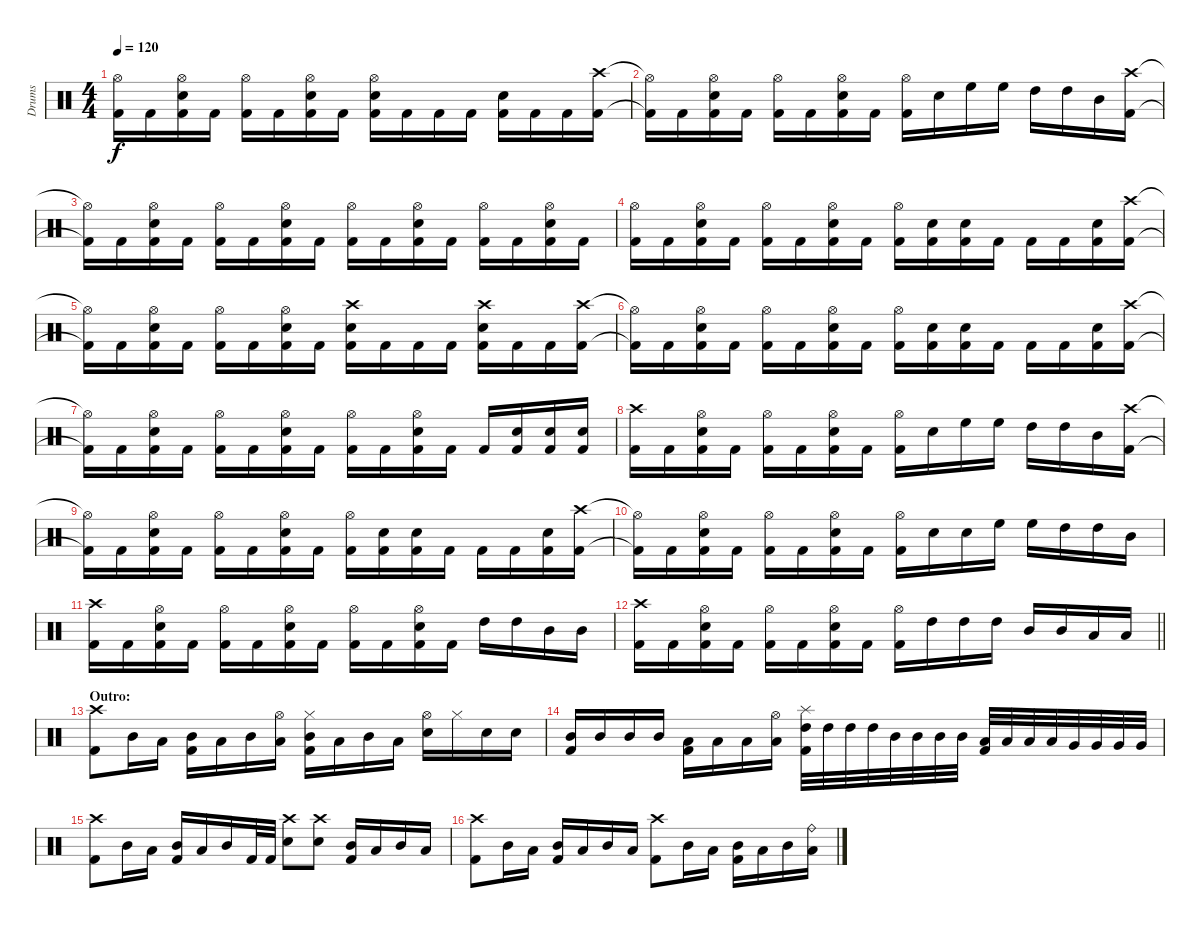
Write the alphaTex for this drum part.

\track ("Drums" "Drums") {instrument percussion}
\staff {score}
\articulation defaults
\ts (4 4)
\tempo 120
\clef neutral
\ks c
("Hi-Hat (open)"{t} "Kick (hit) 2"{t}).16{dy f} "Kick (hit) 2".16 ("Hi-Hat (open)" "Electric Snare (hit)" "Kick (hit) 2").16 "Kick (hit) 2".16 ("Hi-Hat (open)" "Kick (hit) 2").16 "Kick (hit) 2".16 ("Hi-Hat (open)" "Electric Snare (hit)" "Kick (hit) 2").16 "Kick (hit) 2".16 ("Hi-Hat (open)" "Electric Snare (hit)" "Kick (hit) 2").16 "Kick (hit) 2".16 "Kick (hit) 2".16 "Kick (hit) 2".16 ("Electric Snare (hit)" "Kick (hit) 2").16 "Kick (hit) 2".16 "Kick (hit) 2".16 ("Crash high (hit)" "Kick (hit) 2").16 |
("Hi-Hat (open)"{t} "Kick (hit) 2"{t}).16 "Kick (hit) 2".16 ("Hi-Hat (open)" "Electric Snare (hit)" "Kick (hit) 2").16 "Kick (hit) 2".16 ("Hi-Hat (open)" "Kick (hit) 2").16 "Kick (hit) 2".16 ("Hi-Hat (open)" "Electric Snare (hit)" "Kick (hit) 2").16 "Kick (hit) 2".16 ("Hi-Hat (open)" "Kick (hit) 2").16 "Electric Snare (hit)".16 "High Floor Tom (hit)".16 "High Floor Tom (hit)".16 "High Tom (hit)".16 "High Tom (hit)".16 "Mid Tom (hit)".16 ("Crash high (hit)" "Kick (hit) 2").16 |
("Hi-Hat (open)"{t} "Kick (hit) 2"{t}).16 "Kick (hit) 2".16 ("Hi-Hat (open)" "Electric Snare (hit)" "Kick (hit) 2").16 "Kick (hit) 2".16 ("Hi-Hat (open)" "Kick (hit) 2").16 "Kick (hit) 2".16 ("Hi-Hat (open)" "Electric Snare (hit)" "Kick (hit) 2").16 "Kick (hit) 2".16 ("Hi-Hat (open)" "Kick (hit) 2").16 "Kick (hit) 2".16 ("Hi-Hat (open)" "Electric Snare (hit)" "Kick (hit) 2").16 "Kick (hit) 2".16 ("Hi-Hat (open)" "Kick (hit) 2").16 "Kick (hit) 2".16 ("Hi-Hat (open)" "Electric Snare (hit)" "Kick (hit) 2").16 "Kick (hit) 2".16 |
("Hi-Hat (open)" "Kick (hit) 2").16 "Kick (hit) 2".16 ("Hi-Hat (open)" "Electric Snare (hit)" "Kick (hit) 2").16 "Kick (hit) 2".16 ("Hi-Hat (open)" "Kick (hit) 2").16 "Kick (hit) 2".16 ("Hi-Hat (open)" "Electric Snare (hit)" "Kick (hit) 2").16 "Kick (hit) 2".16 ("Hi-Hat (open)" "Kick (hit) 2").16 ("Electric Snare (hit)" "Kick (hit) 2").16 ("Electric Snare (hit)" "Kick (hit) 2").16 "Kick (hit) 2".16 "Kick (hit) 2".16 "Kick (hit) 2".16 ("Electric Snare (hit)" "Kick (hit) 2").16 ("Crash high (hit)" "Kick (hit) 2").16 |
("Hi-Hat (open)"{t} "Kick (hit) 2"{t}).16 "Kick (hit) 2".16 ("Hi-Hat (open)" "Electric Snare (hit)" "Kick (hit) 2").16 "Kick (hit) 2".16 ("Hi-Hat (open)" "Kick (hit) 2").16 "Kick (hit) 2".16 ("Hi-Hat (open)" "Electric Snare (hit)" "Kick (hit) 2").16 "Kick (hit) 2".16 ("Crash high (hit)" "Electric Snare (hit)" "Kick (hit) 2").16 "Kick (hit) 2".16 "Kick (hit) 2".16 "Kick (hit) 2".16 ("Crash high (hit)" "Electric Snare (hit)" "Kick (hit) 2").16 "Kick (hit) 2".16 "Kick (hit) 2".16 ("Crash high (hit)" "Kick (hit) 2").16 |
("Hi-Hat (open)"{t} "Kick (hit) 2"{t}).16 "Kick (hit) 2".16 ("Hi-Hat (open)" "Electric Snare (hit)" "Kick (hit) 2").16 "Kick (hit) 2".16 ("Hi-Hat (open)" "Kick (hit) 2").16 "Kick (hit) 2".16 ("Hi-Hat (open)" "Electric Snare (hit)" "Kick (hit) 2").16 "Kick (hit) 2".16 ("Hi-Hat (open)" "Kick (hit) 2").16 ("Electric Snare (hit)" "Kick (hit) 2").16 ("Electric Snare (hit)" "Kick (hit) 2").16 "Kick (hit) 2".16 "Kick (hit) 2".16 "Kick (hit) 2".16 ("Electric Snare (hit)" "Kick (hit) 2").16 ("Crash high (hit)" "Kick (hit) 2").16 |
("Hi-Hat (open)"{t} "Kick (hit) 2"{t}).16 "Kick (hit) 2".16 ("Hi-Hat (open)" "Electric Snare (hit)" "Kick (hit) 2").16 "Kick (hit) 2".16 ("Hi-Hat (open)" "Kick (hit) 2").16 "Kick (hit) 2".16 ("Hi-Hat (open)" "Electric Snare (hit)" "Kick (hit) 2").16 "Kick (hit) 2".16 ("Hi-Hat (open)" "Kick (hit) 2").16 "Kick (hit) 2".16 ("Hi-Hat (open)" "Electric Snare (hit)" "Kick (hit) 2").16 "Kick (hit) 2".16 "Kick (hit) 2".16 ("Electric Snare (hit)" "Kick (hit) 2").16 ("Electric Snare (hit)" "Kick (hit) 2").16 ("Electric Snare (hit)" "Kick (hit) 2").16 |
("Crash high (hit)" "Kick (hit) 2").16 "Kick (hit) 2".16 ("Hi-Hat (open)" "Electric Snare (hit)" "Kick (hit) 2").16 "Kick (hit) 2".16 ("Hi-Hat (open)" "Kick (hit) 2").16 "Kick (hit) 2".16 ("Hi-Hat (open)" "Electric Snare (hit)" "Kick (hit) 2").16 "Kick (hit) 2".16 ("Hi-Hat (open)" "Kick (hit) 2").16 "Electric Snare (hit)".16 "High Floor Tom (hit)".16 "High Floor Tom (hit)".16 "High Tom (hit)".16 "High Tom (hit)".16 "Mid Tom (hit)".16 ("Crash high (hit)" "Kick (hit) 2").16 |
("Hi-Hat (open)"{t} "Kick (hit) 2"{t}).16 "Kick (hit) 2".16 ("Hi-Hat (open)" "Electric Snare (hit)" "Kick (hit) 2").16 "Kick (hit) 2".16 ("Hi-Hat (open)" "Kick (hit) 2").16 "Kick (hit) 2".16 ("Hi-Hat (open)" "Electric Snare (hit)" "Kick (hit) 2").16 "Kick (hit) 2".16 ("Hi-Hat (open)" "Kick (hit) 2").16 ("Electric Snare (hit)" "Kick (hit) 2").16 ("Electric Snare (hit)" "Kick (hit) 2").16 "Kick (hit) 2".16 "Kick (hit) 2".16 "Kick (hit) 2".16 ("Electric Snare (hit)" "Kick (hit) 2").16 ("Crash high (hit)" "Kick (hit) 2").16 |
("Hi-Hat (open)"{t} "Kick (hit) 2"{t}).16 "Kick (hit) 2".16 ("Hi-Hat (open)" "Electric Snare (hit)" "Kick (hit) 2").16 "Kick (hit) 2".16 ("Hi-Hat (open)" "Kick (hit) 2").16 "Kick (hit) 2".16 ("Hi-Hat (open)" "Electric Snare (hit)" "Kick (hit) 2").16 "Kick (hit) 2".16 ("Hi-Hat (open)" "Kick (hit) 2").16 "Electric Snare (hit)".16 "Electric Snare (hit)".16 "High Floor Tom (hit)".16 "High Floor Tom (hit)".16 "High Tom (hit)".16 "High Tom (hit)".16 "Mid Tom (hit)".16 |
("Crash high (hit)" "Kick (hit) 2").16 "Kick (hit) 2".16 ("Hi-Hat (open)" "Electric Snare (hit)" "Kick (hit) 2").16 "Kick (hit) 2".16 ("Hi-Hat (open)" "Kick (hit) 2").16 "Kick (hit) 2".16 ("Hi-Hat (open)" "Electric Snare (hit)" "Kick (hit) 2").16 "Kick (hit) 2".16 ("Hi-Hat (open)" "Kick (hit) 2").16 "Kick (hit) 2".16 ("Hi-Hat (open)" "Electric Snare (hit)" "Kick (hit) 2").16 "Kick (hit) 2".16 "High Tom (hit)".16 "High Tom (hit)".16 "Mid Tom (hit)".16 "Mid Tom (hit)".16 |
\barLineRight lightlight
("Crash high (hit)" "Kick (hit) 2").16 "Kick (hit) 2".16 ("Hi-Hat (open)" "Electric Snare (hit)" "Kick (hit) 2").16 "Kick (hit) 2".16 ("Hi-Hat (open)" "Kick (hit) 2").16 "Kick (hit) 2".16 ("Hi-Hat (open)" "Electric Snare (hit)" "Kick (hit) 2").16 "Kick (hit) 2".16 ("Hi-Hat (open)" "Kick (hit) 2").16 "High Tom (hit)".16 "High Tom (hit)".16 "High Tom (hit)".16 "Mid Tom (hit)".16 "Mid Tom (hit)".16 "Low Tom (hit)".16 "Low Tom (hit)".16 |
\section ("" "Outro:")
("Crash high (hit)" "Kick (hit) 2").8 "Mid Tom (hit)".16 "Low Tom (hit)".16 ("Mid Tom (hit)" "Kick (hit) 2").16 "Low Tom (hit)".16 "Mid Tom (hit)".16 ("Hi-Hat (open)" "Low Tom (hit)").16 ("Hi-Hat (closed)" "Mid Tom (hit)" "Kick (hit) 2").16 "Low Tom (hit)".16 "Mid Tom (hit)".16 "Low Tom (hit)".16 ("Hi-Hat (open)" "Electric Snare (hit)").16 "Hi-Hat (closed)".16 "Electric Snare (hit)".16 "Electric Snare (hit)".16 |
("Mid Tom (hit)" "Kick (hit) 2").16 "Mid Tom (hit)".16 "Mid Tom (hit)".16 "Mid Tom (hit)".16 ("Low Tom (hit)" "Kick (hit) 2").16 "Low Tom (hit)".16 "Low Tom (hit)".16 ("Hi-Hat (open)" "Low Tom (hit)").16 ("Splash (hit)" "High Tom (hit)" "Kick (hit) 2").32 "High Tom (hit)".32 "High Tom (hit)".32 "High Tom (hit)".32 "Mid Tom (hit)".32 "Mid Tom (hit)".32 "Mid Tom (hit)".32 "Mid Tom (hit)".32 ("Low Tom (hit)" "Kick (hit) 2").32 "Low Tom (hit)".32 "Low Tom (hit)".32 "Low Tom (hit)".32 "Very Low Tom (hit)".32 "Very Low Tom (hit)".32 "Very Low Tom (hit)".32 "Very Low Tom (hit)".32 |
("Crash high (hit)" "Kick (hit) 2").8 "Mid Tom (hit)".16 "Low Tom (hit)".16 ("Mid Tom (hit)" "Kick (hit) 2").16 "Low Tom (hit)".16 "Mid Tom (hit)".16 "Kick (hit) 2".32 "Kick (hit) 2".32 ("Crash high (hit)" "Electric Snare (hit)").8 ("Crash high (hit)" "Electric Snare (hit)").8 ("Mid Tom (hit)" "Kick (hit) 2").16 "Low Tom (hit)".16 "Mid Tom (hit)".16 "Low Tom (hit)".16 |
("Crash high (hit)" "Kick (hit) 2").8 "Mid Tom (hit)".16 "Low Tom (hit)".16 ("Mid Tom (hit)" "Kick (hit) 2").16 "Low Tom (hit)".16 "Mid Tom (hit)".16 "Low Tom (hit)".16 ("Crash high (hit)" "Kick (hit) 2").8 "Mid Tom (hit)".16 "Low Tom (hit)".16 ("Mid Tom (hit)" "Kick (hit) 2").16 "Low Tom (hit)".16 "Mid Tom (hit)".16 ("Ride (bell)" "Low Tom (hit)").16
